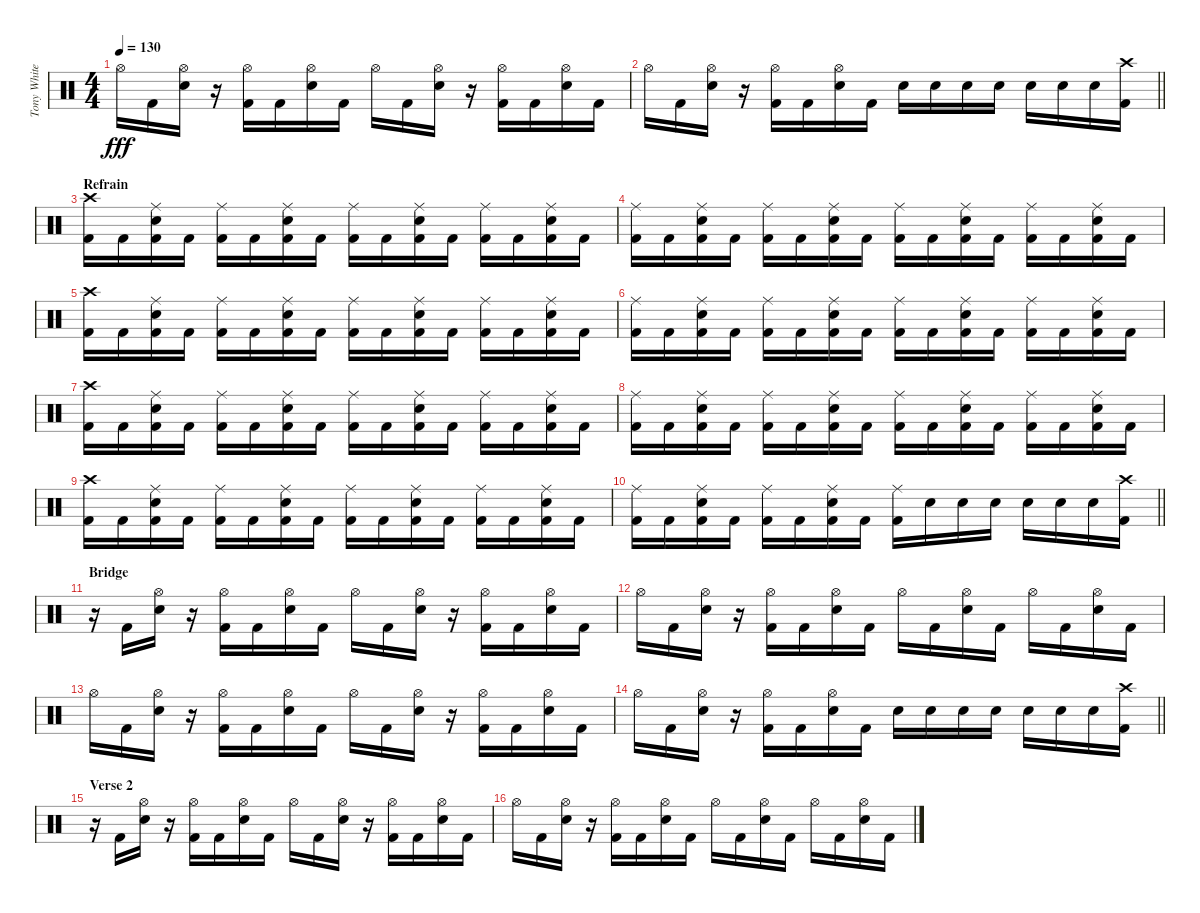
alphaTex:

\track ("Tony White" "Tony White") {instrument percussion}
\staff {score}
\articulation defaults
\ts (4 4)
\tempo 130
\clef neutral
\ks c "Hi-Hat (open)".16{dy fff} "Kick (hit) 2".16
("Hi-Hat (open)" "Electric Snare (hit)").16 r.16 ("Hi-Hat (open)" "Kick (hit) 2").16 "Kick (hit) 2".16 ("Hi-Hat (open)" "Electric Snare (hit)").16 "Kick (hit) 2".16 "Hi-Hat (open)".16 "Kick (hit) 2".16 ("Hi-Hat (open)" "Electric Snare (hit)").16 r.16 ("Hi-Hat (open)" "Kick (hit) 2").16 "Kick (hit) 2".16 ("Hi-Hat (open)" "Electric Snare (hit)").16 "Kick (hit) 2".16 |
\barLineRight lightlight "Hi-Hat (open)".16 "Kick (hit) 2".16
("Hi-Hat (open)" "Electric Snare (hit)").16 r.16 ("Hi-Hat (open)" "Kick (hit) 2").16 "Kick (hit) 2".16 ("Hi-Hat (open)" "Electric Snare (hit)").16 "Kick (hit) 2".16 "Electric Snare (hit)".16 "Electric Snare (hit)".16 "Electric Snare (hit)".16 "Electric Snare (hit)".16 "Electric Snare (hit)".16 "Electric Snare (hit)".16 "Electric Snare (hit)".16 ("Crash high (hit)" "Kick (hit) 2").16 |
\section ("" "Refrain")
("Crash high (hit)" "Kick (hit) 2").16 "Kick (hit) 2".16 ("Ride (middle)" "Electric Snare (hit)" "Kick (hit) 2").16 "Kick (hit) 2".16 ("Ride (middle)" "Kick (hit) 2").16 "Kick (hit) 2".16 ("Ride (middle)" "Electric Snare (hit)" "Kick (hit) 2").16 "Kick (hit) 2".16 ("Ride (middle)" "Kick (hit) 2").16 "Kick (hit) 2".16 ("Ride (middle)" "Electric Snare (hit)" "Kick (hit) 2").16 "Kick (hit) 2".16 ("Ride (middle)" "Kick (hit) 2").16 "Kick (hit) 2".16 ("Ride (middle)" "Electric Snare (hit)" "Kick (hit) 2").16 "Kick (hit) 2".16 |
("Ride (middle)" "Kick (hit) 2").16 "Kick (hit) 2".16 ("Ride (middle)" "Electric Snare (hit)" "Kick (hit) 2").16 "Kick (hit) 2".16 ("Ride (middle)" "Kick (hit) 2").16 "Kick (hit) 2".16 ("Ride (middle)" "Electric Snare (hit)" "Kick (hit) 2").16 "Kick (hit) 2".16 ("Ride (middle)" "Kick (hit) 2").16 "Kick (hit) 2".16 ("Ride (middle)" "Electric Snare (hit)" "Kick (hit) 2").16 "Kick (hit) 2".16 ("Ride (middle)" "Kick (hit) 2").16 "Kick (hit) 2".16 ("Ride (middle)" "Electric Snare (hit)" "Kick (hit) 2").16 "Kick (hit) 2".16 |
("Crash high (hit)" "Kick (hit) 2").16 "Kick (hit) 2".16 ("Ride (middle)" "Electric Snare (hit)" "Kick (hit) 2").16 "Kick (hit) 2".16 ("Ride (middle)" "Kick (hit) 2").16 "Kick (hit) 2".16 ("Ride (middle)" "Electric Snare (hit)" "Kick (hit) 2").16 "Kick (hit) 2".16 ("Ride (middle)" "Kick (hit) 2").16 "Kick (hit) 2".16 ("Ride (middle)" "Electric Snare (hit)" "Kick (hit) 2").16 "Kick (hit) 2".16 ("Ride (middle)" "Kick (hit) 2").16 "Kick (hit) 2".16 ("Ride (middle)" "Electric Snare (hit)" "Kick (hit) 2").16 "Kick (hit) 2".16 |
("Ride (middle)" "Kick (hit) 2").16 "Kick (hit) 2".16 ("Ride (middle)" "Electric Snare (hit)" "Kick (hit) 2").16 "Kick (hit) 2".16 ("Ride (middle)" "Kick (hit) 2").16 "Kick (hit) 2".16 ("Ride (middle)" "Electric Snare (hit)" "Kick (hit) 2").16 "Kick (hit) 2".16 ("Ride (middle)" "Kick (hit) 2").16 "Kick (hit) 2".16 ("Ride (middle)" "Electric Snare (hit)" "Kick (hit) 2").16 "Kick (hit) 2".16 ("Ride (middle)" "Kick (hit) 2").16 "Kick (hit) 2".16 ("Ride (middle)" "Electric Snare (hit)" "Kick (hit) 2").16 "Kick (hit) 2".16 |
("Crash high (hit)" "Kick (hit) 2").16 "Kick (hit) 2".16 ("Ride (middle)" "Electric Snare (hit)" "Kick (hit) 2").16 "Kick (hit) 2".16 ("Ride (middle)" "Kick (hit) 2").16 "Kick (hit) 2".16 ("Ride (middle)" "Electric Snare (hit)" "Kick (hit) 2").16 "Kick (hit) 2".16 ("Ride (middle)" "Kick (hit) 2").16 "Kick (hit) 2".16 ("Ride (middle)" "Electric Snare (hit)" "Kick (hit) 2").16 "Kick (hit) 2".16 ("Ride (middle)" "Kick (hit) 2").16 "Kick (hit) 2".16 ("Ride (middle)" "Electric Snare (hit)" "Kick (hit) 2").16 "Kick (hit) 2".16 |
("Ride (middle)" "Kick (hit) 2").16 "Kick (hit) 2".16 ("Ride (middle)" "Electric Snare (hit)" "Kick (hit) 2").16 "Kick (hit) 2".16 ("Ride (middle)" "Kick (hit) 2").16 "Kick (hit) 2".16 ("Ride (middle)" "Electric Snare (hit)" "Kick (hit) 2").16 "Kick (hit) 2".16 ("Ride (middle)" "Kick (hit) 2").16 "Kick (hit) 2".16 ("Ride (middle)" "Electric Snare (hit)" "Kick (hit) 2").16 "Kick (hit) 2".16 ("Ride (middle)" "Kick (hit) 2").16 "Kick (hit) 2".16 ("Ride (middle)" "Electric Snare (hit)" "Kick (hit) 2").16 "Kick (hit) 2".16 |
("Crash high (hit)" "Kick (hit) 2").16 "Kick (hit) 2".16 ("Ride (middle)" "Electric Snare (hit)" "Kick (hit) 2").16 "Kick (hit) 2".16 ("Ride (middle)" "Kick (hit) 2").16 "Kick (hit) 2".16 ("Ride (middle)" "Electric Snare (hit)" "Kick (hit) 2").16 "Kick (hit) 2".16 ("Ride (middle)" "Kick (hit) 2").16 "Kick (hit) 2".16 ("Ride (middle)" "Electric Snare (hit)" "Kick (hit) 2").16 "Kick (hit) 2".16 ("Ride (middle)" "Kick (hit) 2").16 "Kick (hit) 2".16 ("Ride (middle)" "Electric Snare (hit)" "Kick (hit) 2").16 "Kick (hit) 2".16 |
\barLineRight lightlight
("Ride (middle)" "Kick (hit) 2").16 "Kick (hit) 2".16 ("Ride (middle)" "Electric Snare (hit)" "Kick (hit) 2").16 "Kick (hit) 2".16 ("Ride (middle)" "Kick (hit) 2").16 "Kick (hit) 2".16 ("Ride (middle)" "Electric Snare (hit)" "Kick (hit) 2").16 "Kick (hit) 2".16 ("Ride (middle)" "Kick (hit) 2").16 "Electric Snare (hit)".16 "Electric Snare (hit)".16 "Electric Snare (hit)".16 "Electric Snare (hit)".16 "Electric Snare (hit)".16 "Electric Snare (hit)".16 ("Crash high (hit)" "Kick (hit) 2").16 |
\section ("" "Bridge")
r.16 "Kick (hit) 2".16 ("Hi-Hat (open)" "Electric Snare (hit)").16 r.16 ("Hi-Hat (open)" "Kick (hit) 2").16 "Kick (hit) 2".16 ("Hi-Hat (open)" "Electric Snare (hit)").16 "Kick (hit) 2".16 "Hi-Hat (open)".16 "Kick (hit) 2".16 ("Hi-Hat (open)" "Electric Snare (hit)").16 r.16 ("Hi-Hat (open)" "Kick (hit) 2").16 "Kick (hit) 2".16 ("Hi-Hat (open)" "Electric Snare (hit)").16 "Kick (hit) 2".16 |
"Hi-Hat (open)".16 "Kick (hit) 2".16 ("Hi-Hat (open)" "Electric Snare (hit)").16 r.16 ("Hi-Hat (open)" "Kick (hit) 2").16 "Kick (hit) 2".16 ("Hi-Hat (open)" "Electric Snare (hit)").16 "Kick (hit) 2".16 "Hi-Hat (open)".16 "Kick (hit) 2".16 ("Hi-Hat (open)" "Electric Snare (hit)").16 "Kick (hit) 2".16 "Hi-Hat (open)".16 "Kick (hit) 2".16 ("Hi-Hat (open)" "Electric Snare (hit)").16 "Kick (hit) 2".16 |
"Hi-Hat (open)".16 "Kick (hit) 2".16 ("Hi-Hat (open)" "Electric Snare (hit)").16 r.16 ("Hi-Hat (open)" "Kick (hit) 2").16 "Kick (hit) 2".16 ("Hi-Hat (open)" "Electric Snare (hit)").16 "Kick (hit) 2".16 "Hi-Hat (open)".16 "Kick (hit) 2".16 ("Hi-Hat (open)" "Electric Snare (hit)").16 r.16 ("Hi-Hat (open)" "Kick (hit) 2").16 "Kick (hit) 2".16 ("Hi-Hat (open)" "Electric Snare (hit)").16 "Kick (hit) 2".16 |
\barLineRight lightlight "Hi-Hat (open)".16 "Kick (hit) 2".16
("Hi-Hat (open)" "Electric Snare (hit)").16 r.16 ("Hi-Hat (open)" "Kick (hit) 2").16 "Kick (hit) 2".16 ("Hi-Hat (open)" "Electric Snare (hit)").16 "Kick (hit) 2".16 "Electric Snare (hit)".16 "Electric Snare (hit)".16 "Electric Snare (hit)".16 "Electric Snare (hit)".16 "Electric Snare (hit)".16 "Electric Snare (hit)".16 "Electric Snare (hit)".16 ("Crash high (hit)" "Kick (hit) 2").16 |
\section ("" "Verse 2")
r.16 "Kick (hit) 2".16 ("Hi-Hat (open)" "Electric Snare (hit)").16 r.16 ("Hi-Hat (open)" "Kick (hit) 2").16 "Kick (hit) 2".16 ("Hi-Hat (open)" "Electric Snare (hit)").16 "Kick (hit) 2".16 "Hi-Hat (open)".16 "Kick (hit) 2".16 ("Hi-Hat (open)" "Electric Snare (hit)").16 r.16 ("Hi-Hat (open)" "Kick (hit) 2").16 "Kick (hit) 2".16 ("Hi-Hat (open)" "Electric Snare (hit)").16 "Kick (hit) 2".16 |
"Hi-Hat (open)".16 "Kick (hit) 2".16 ("Hi-Hat (open)" "Electric Snare (hit)").16 r.16 ("Hi-Hat (open)" "Kick (hit) 2").16 "Kick (hit) 2".16 ("Hi-Hat (open)" "Electric Snare (hit)").16 "Kick (hit) 2".16 "Hi-Hat (open)".16 "Kick (hit) 2".16 ("Hi-Hat (open)" "Electric Snare (hit)").16 "Kick (hit) 2".16 "Hi-Hat (open)".16 "Kick (hit) 2".16 ("Hi-Hat (open)" "Electric Snare (hit)").16 "Kick (hit) 2".16
